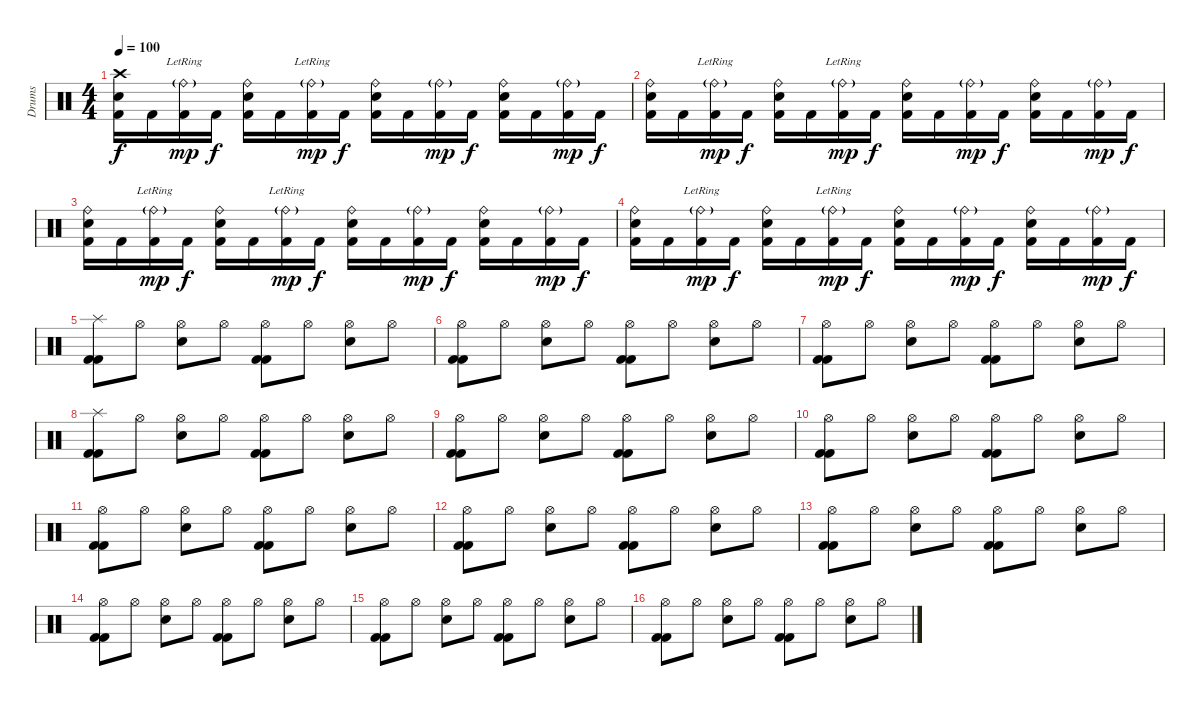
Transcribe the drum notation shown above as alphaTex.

\track ("Drums" "Drums") {instrument percussion}
\staff {score}
\articulation defaults
\ts (4 4)
\tempo 100
\clef neutral
\ks c
("Crash high (hit)" "Electric Snare (hit)" "Kick (hit) 2").16{dy f} "Kick (hit) 2".16 ("Ride (bell)"{g lr} "Kick (hit) 2").16{dy mp} "Kick (hit) 2".16{dy f} ("Ride (bell)" "Electric Snare (hit)" "Kick (hit) 2").16 "Kick (hit) 2".16 ("Ride (bell)"{g lr} "Kick (hit) 2").16{dy mp} "Kick (hit) 2".16{dy f} ("Ride (bell)" "Electric Snare (hit)" "Kick (hit) 2").16 "Kick (hit) 2".16 ("Ride (bell)"{g} "Kick (hit) 2").16{dy mp} "Kick (hit) 2".16{dy f} ("Ride (bell)" "Electric Snare (hit)" "Kick (hit) 2").16 "Kick (hit) 2".16 ("Ride (bell)"{g} "Kick (hit) 2").16{dy mp} "Kick (hit) 2".16{dy f} |
("Ride (bell)" "Electric Snare (hit)" "Kick (hit) 2").16 "Kick (hit) 2".16 ("Ride (bell)"{g lr} "Kick (hit) 2").16{dy mp} "Kick (hit) 2".16{dy f} ("Ride (bell)" "Electric Snare (hit)" "Kick (hit) 2").16 "Kick (hit) 2".16 ("Ride (bell)"{g lr} "Kick (hit) 2").16{dy mp} "Kick (hit) 2".16{dy f} ("Ride (bell)" "Electric Snare (hit)" "Kick (hit) 2").16 "Kick (hit) 2".16 ("Ride (bell)"{g} "Kick (hit) 2").16{dy mp} "Kick (hit) 2".16{dy f} ("Ride (bell)" "Electric Snare (hit)" "Kick (hit) 2").16 "Kick (hit) 2".16 ("Ride (bell)"{g} "Kick (hit) 2").16{dy mp} "Kick (hit) 2".16{dy f} |
("Ride (bell)" "Electric Snare (hit)" "Kick (hit) 2").16 "Kick (hit) 2".16 ("Ride (bell)"{g lr} "Kick (hit) 2").16{dy mp} "Kick (hit) 2".16{dy f} ("Ride (bell)" "Electric Snare (hit)" "Kick (hit) 2").16 "Kick (hit) 2".16 ("Ride (bell)"{g lr} "Kick (hit) 2").16{dy mp} "Kick (hit) 2".16{dy f} ("Ride (bell)" "Electric Snare (hit)" "Kick (hit) 2").16 "Kick (hit) 2".16 ("Ride (bell)"{g} "Kick (hit) 2").16{dy mp} "Kick (hit) 2".16{dy f} ("Ride (bell)" "Electric Snare (hit)" "Kick (hit) 2").16 "Kick (hit) 2".16 ("Ride (bell)"{g} "Kick (hit) 2").16{dy mp} "Kick (hit) 2".16{dy f} |
("Ride (bell)" "Electric Snare (hit)" "Kick (hit) 2").16 "Kick (hit) 2".16 ("Ride (bell)"{g lr} "Kick (hit) 2").16{dy mp} "Kick (hit) 2".16{dy f} ("Ride (bell)" "Electric Snare (hit)" "Kick (hit) 2").16 "Kick (hit) 2".16 ("Ride (bell)"{g lr} "Kick (hit) 2").16{dy mp} "Kick (hit) 2".16{dy f} ("Ride (bell)" "Electric Snare (hit)" "Kick (hit) 2").16 "Kick (hit) 2".16 ("Ride (bell)"{g} "Kick (hit) 2").16{dy mp} "Kick (hit) 2".16{dy f} ("Ride (bell)" "Electric Snare (hit)" "Kick (hit) 2").16 "Kick (hit) 2".16 ("Ride (bell)"{g} "Kick (hit) 2").16{dy mp} "Kick (hit) 2".16{dy f} |
("Splash (hit)" "Kick (hit) 2" "Kick (hit) 2").8 "Hi-Hat (open)".8 ("Hi-Hat (open)" "Electric Snare (hit)").8 "Hi-Hat (open)".8 ("Hi-Hat (open)" "Kick (hit) 2" "Kick (hit) 2").8 "Hi-Hat (open)".8 ("Hi-Hat (open)" "Electric Snare (hit)").8 "Hi-Hat (open)".8 |
("Hi-Hat (open)" "Kick (hit) 2" "Kick (hit) 2").8 "Hi-Hat (open)".8 ("Hi-Hat (open)" "Electric Snare (hit)").8 "Hi-Hat (open)".8 ("Hi-Hat (open)" "Kick (hit) 2" "Kick (hit) 2").8 "Hi-Hat (open)".8 ("Hi-Hat (open)" "Electric Snare (hit)").8 "Hi-Hat (open)".8 |
("Hi-Hat (open)" "Kick (hit) 2" "Kick (hit) 2").8 "Hi-Hat (open)".8 ("Hi-Hat (open)" "Electric Snare (hit)").8 "Hi-Hat (open)".8 ("Hi-Hat (open)" "Kick (hit) 2" "Kick (hit) 2").8 "Hi-Hat (open)".8 ("Hi-Hat (open)" "Electric Snare (hit)").8 "Hi-Hat (open)".8 |
("Splash (hit)" "Kick (hit) 2" "Kick (hit) 2").8 "Hi-Hat (open)".8 ("Hi-Hat (open)" "Electric Snare (hit)").8 "Hi-Hat (open)".8 ("Hi-Hat (open)" "Kick (hit) 2" "Kick (hit) 2").8 "Hi-Hat (open)".8 ("Hi-Hat (open)" "Electric Snare (hit)").8 "Hi-Hat (open)".8 |
("Hi-Hat (open)" "Kick (hit) 2" "Kick (hit) 2").8 "Hi-Hat (open)".8 ("Hi-Hat (open)" "Electric Snare (hit)").8 "Hi-Hat (open)".8 ("Hi-Hat (open)" "Kick (hit) 2" "Kick (hit) 2").8 "Hi-Hat (open)".8 ("Hi-Hat (open)" "Electric Snare (hit)").8 "Hi-Hat (open)".8 |
("Hi-Hat (open)" "Kick (hit) 2" "Kick (hit) 2").8 "Hi-Hat (open)".8 ("Hi-Hat (open)" "Electric Snare (hit)").8 "Hi-Hat (open)".8 ("Hi-Hat (open)" "Kick (hit) 2" "Kick (hit) 2").8 "Hi-Hat (open)".8 ("Hi-Hat (open)" "Electric Snare (hit)").8 "Hi-Hat (open)".8 |
("Hi-Hat (open)" "Kick (hit) 2" "Kick (hit) 2").8 "Hi-Hat (open)".8 ("Hi-Hat (open)" "Electric Snare (hit)").8 "Hi-Hat (open)".8 ("Hi-Hat (open)" "Kick (hit) 2" "Kick (hit) 2").8 "Hi-Hat (open)".8 ("Hi-Hat (open)" "Electric Snare (hit)").8 "Hi-Hat (open)".8 |
("Hi-Hat (open)" "Kick (hit) 2" "Kick (hit) 2").8 "Hi-Hat (open)".8 ("Hi-Hat (open)" "Electric Snare (hit)").8 "Hi-Hat (open)".8 ("Hi-Hat (open)" "Kick (hit) 2" "Kick (hit) 2").8 "Hi-Hat (open)".8 ("Hi-Hat (open)" "Electric Snare (hit)").8 "Hi-Hat (open)".8 |
("Hi-Hat (open)" "Kick (hit) 2" "Kick (hit) 2").8 "Hi-Hat (open)".8 ("Hi-Hat (open)" "Electric Snare (hit)").8 "Hi-Hat (open)".8 ("Hi-Hat (open)" "Kick (hit) 2" "Kick (hit) 2").8 "Hi-Hat (open)".8 ("Hi-Hat (open)" "Electric Snare (hit)").8 "Hi-Hat (open)".8 |
("Hi-Hat (open)" "Kick (hit) 2" "Kick (hit) 2").8 "Hi-Hat (open)".8 ("Hi-Hat (open)" "Electric Snare (hit)").8 "Hi-Hat (open)".8 ("Hi-Hat (open)" "Kick (hit) 2" "Kick (hit) 2").8 "Hi-Hat (open)".8 ("Hi-Hat (open)" "Electric Snare (hit)").8 "Hi-Hat (open)".8 |
("Hi-Hat (open)" "Kick (hit) 2" "Kick (hit) 2").8 "Hi-Hat (open)".8 ("Hi-Hat (open)" "Electric Snare (hit)").8 "Hi-Hat (open)".8 ("Hi-Hat (open)" "Kick (hit) 2" "Kick (hit) 2").8 "Hi-Hat (open)".8 ("Hi-Hat (open)" "Electric Snare (hit)").8 "Hi-Hat (open)".8 |
("Hi-Hat (open)" "Kick (hit) 2" "Kick (hit) 2").8 "Hi-Hat (open)".8 ("Hi-Hat (open)" "Electric Snare (hit)").8 "Hi-Hat (open)".8 ("Hi-Hat (open)" "Kick (hit) 2" "Kick (hit) 2").8 "Hi-Hat (open)".8 ("Hi-Hat (open)" "Electric Snare (hit)").8 "Hi-Hat (open)".8
